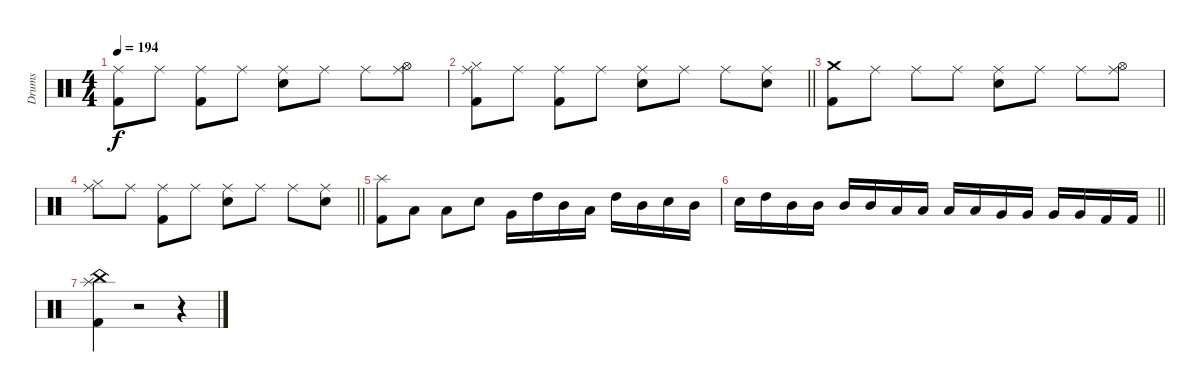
\track ("Drums" "Drums") {instrument percussion}
\staff {score}
\articulation defaults
\ts (4 4)
\tempo 194
\clef neutral
\ks c
("Ride (middle)" "Kick (hit) 2").8{dy f} "Ride (middle)".8 ("Ride (middle)" "Kick (hit) 2").8 "Ride (middle)".8 ("Ride (middle)" "Snare (hit) 2").8 "Ride (middle)".8 "Ride (middle)".8 ("Ride (middle)" "Hi-Hat (open)").8 |
\barLineRight lightlight
("Ride (middle)" "Hi-Hat (closed)" "Kick (hit) 2").8 "Ride (middle)".8 ("Ride (middle)" "Kick (hit) 2").8 "Ride (middle)".8 ("Ride (middle)" "Snare (hit) 2").8 "Ride (middle)".8 "Ride (middle)".8 ("Ride (middle)" "Snare (hit) 2").8 |
("Crash medium (hit)" "Kick (hit) 2").8 "Ride (middle)".8 "Ride (middle)".8 "Ride (middle)".8 ("Ride (middle)" "Snare (hit) 2").8 "Ride (middle)".8 "Ride (middle)".8 ("Ride (middle)" "Hi-Hat (open)").8 |
\barLineRight lightlight
("Ride (middle)" "Hi-Hat (closed)").8 "Ride (middle)".8 ("Ride (middle)" "Kick (hit) 2").8 "Ride (middle)".8 ("Ride (middle)" "Snare (hit) 2").8 "Ride (middle)".8 "Ride (middle)".8 ("Ride (middle)" "Snare (hit) 2").8 |
("Splash (hit)" "Kick (hit) 2").8 "Low Tom (hit)".8 "Low Tom (hit)".8 "Snare (hit) 2".8 "Very Low Tom (hit)".16 "High Tom (hit)".16 "Mid Tom (hit)".16 "Low Tom (hit)".16 "High Tom (hit)".16 "Mid Tom (hit)".16 "Snare (hit) 2".16 "Mid Tom (hit)".16 |
\barLineRight lightlight "Snare (hit) 2".16 "High Tom (hit)".16 "Mid Tom (hit)".16 "Mid Tom (hit)".16 "Mid Tom (hit)".16 "Mid Tom (hit)".16 "Low Tom (hit)".16 "Low Tom (hit)".16 "Low Tom (hit)".16 "Low Tom (hit)".16 "Very Low Tom (hit)".16 "Very Low Tom (hit)".16 "Very Low Tom (hit)".16 "Very Low Tom (hit)".16 "Kick (hit) 2".16 "Kick (hit) 2".16
|
("China (hit)" "Splash (hit)" "Kick (hit) 2").4 r.2 r.4
